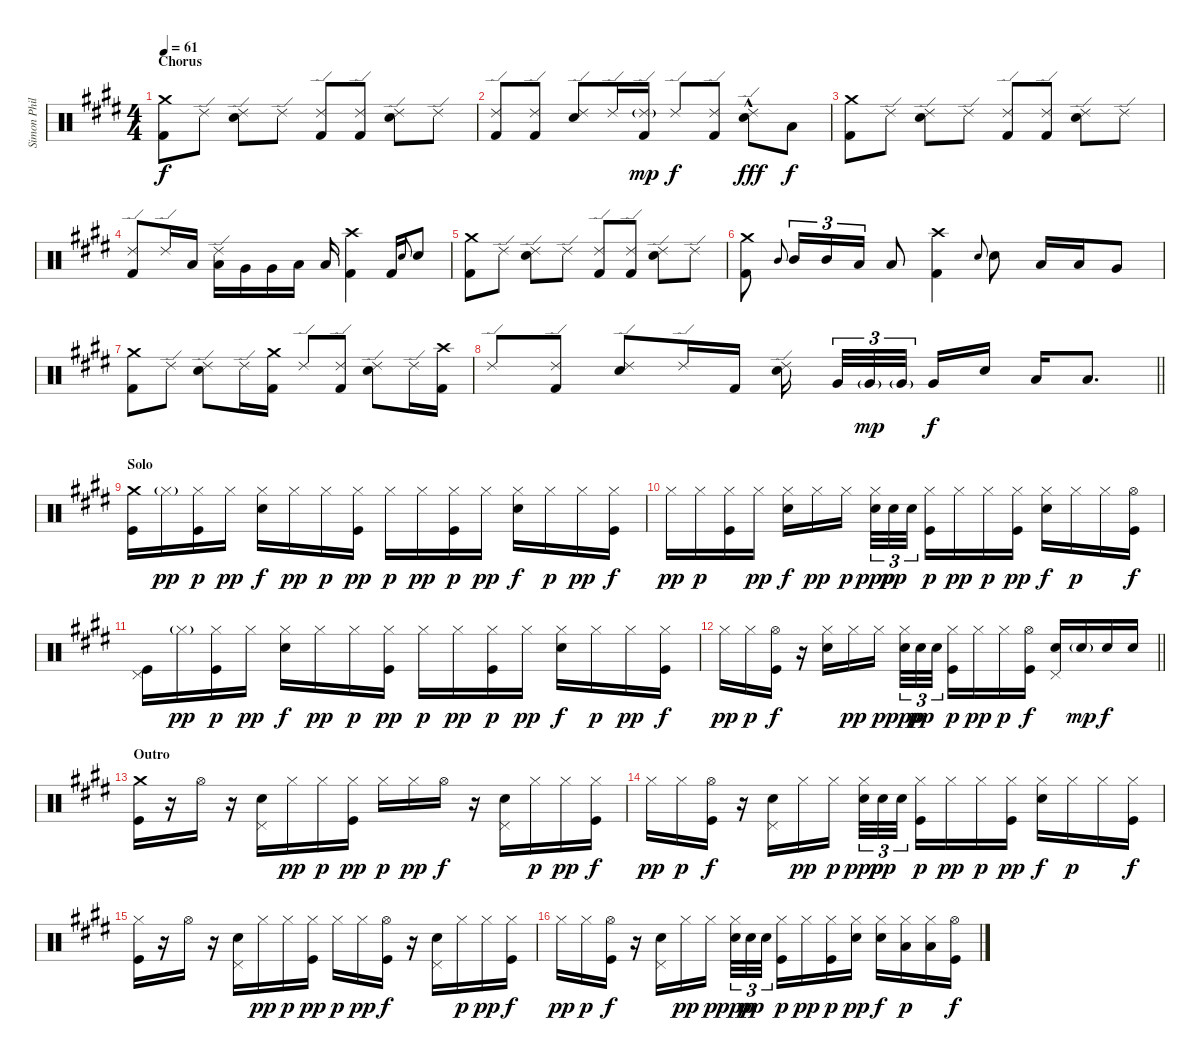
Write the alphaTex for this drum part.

\track ("Simon Phillips" "Simon Phil") {instrument percussion}
\staff {score}
\articulation defaults
\ts (4 4)
\section ("" "Chorus")
\tempo 61
\clef neutral
\ks e
("Crash medium (hit)" "Kick (hit) 2").8{dy f} "Ride (edge) 2".8 ("Ride (edge) 2" "Electric Snare (hit)").8 "Ride (edge) 2".8 ("Ride (edge) 2" "Kick (hit) 2").8 ("Ride (edge) 2" "Kick (hit) 2").8 ("Ride (edge) 2" "Electric Snare (hit)").8 "Ride (edge) 2".8 |
("Ride (edge) 2" "Kick (hit) 2").8 ("Ride (edge) 2" "Kick (hit) 2").8 ("Ride (edge) 2" "Electric Snare (hit)").8 "Ride (edge) 2".16 ("Ride (edge) 2"{g} "Kick (hit) 2").16{dy mp} "Ride (edge) 2".8{dy f} ("Ride (edge) 2" "Kick (hit) 2").8 ("Ride (edge) 2"{hac} "Electric Snare (hit)").8{dy fff} "Low Floor Tom (hit)".8{dy f} |
("Crash medium (hit)" "Kick (hit) 2").8 "Ride (edge) 2".8 ("Ride (edge) 2" "Electric Snare (hit)").8 "Ride (edge) 2".8 ("Ride (edge) 2" "Kick (hit) 2").8 ("Ride (edge) 2" "Kick (hit) 2").8 ("Ride (edge) 2" "Electric Snare (hit)").8 "Ride (edge) 2".8 |
("Ride (edge) 2" "Kick (hit) 2").8 "Ride (edge) 2".16 "Low Tom (hit)".16 ("Ride (edge) 2" "Low Tom (hit)").16 "Very Low Tom (hit)".16 "Very Low Tom (hit)".16 "Low Floor Tom (hit)".16 "Low Floor Tom (hit)".16 ("Crash high (hit)" "Kick (hit) 2").4 "Kick (hit) 2".16 "Electric Snare (hit)".8{gr onbeat} "Electric Snare (hit)".8 |
("Crash medium (hit)" "Kick (hit) 2").8 "Ride (edge) 2".8 ("Ride (edge) 2" "Electric Snare (hit)").8 "Ride (edge) 2".8 ("Ride (edge) 2" "Kick (hit) 2").8 ("Ride (edge) 2" "Kick (hit) 2").8 ("Ride (edge) 2" "Electric Snare (hit)").8 "Ride (edge) 2".8 |
("Crash medium (hit)" "Kick (hit) 2").8 "Mid Tom (hit)".8{gr onbeat} "Mid Tom (hit)".16{tu (3 2)} "Mid Tom (hit)".16{tu (3 2)} "Low Tom (hit)".16{tu (3 2)} "Low Tom (hit)".8 ("Crash high (hit)" "Kick (hit) 2").4 "Electric Snare (hit)".8{gr onbeat} "Electric Snare (hit)".8 "Low Tom (hit)".16 "Low Tom (hit)".16 "Very Low Tom (hit)".8 |
("Crash medium (hit)" "Kick (hit) 2").8 "Ride (edge) 2".8 ("Ride (edge) 2" "Electric Snare (hit)").8 "Ride (edge) 2".16 ("Crash medium (hit)" "Kick (hit) 2").16 "Ride (edge) 2".8 ("Ride (edge) 2" "Kick (hit) 2").8 ("Ride (edge) 2" "Electric Snare (hit)").8 "Ride (edge) 2".16 ("Crash high (hit)" "Kick (hit) 2").16 |
\barLineRight lightlight "Ride (edge) 2".8
("Ride (edge) 2" "Kick (hit) 2").8 ("Ride (edge) 2" "Electric Snare (hit)").8 "Ride (edge) 2".16 "Kick (hit) 2".16 ("Ride (edge) 2" "Electric Snare (hit)").16{beam splitsecondary} "Very Low Tom (hit)".32{tu (3 2)} "Very Low Tom (hit)"{g}.32{tu (3 2) dy mp} "Very Low Tom (hit)"{g}.32{tu (3 2) beam splitsecondary} "Very Low Tom (hit)".16{dy f} "Electric Snare (hit)".16 "Low Tom (hit)".16 "Low Tom (hit)".8{d} |
\section ("" "Solo")
("Crash medium (hit)" "Kick (hit)").16 "Hi-Hat (closed)"{g}.16{dy pp} ("Hi-Hat (closed)" "Kick (hit)").16{dy p} "Hi-Hat (closed)".16{dy pp} ("Hi-Hat (closed)" "Electric Snare (hit)").16{dy f} "Hi-Hat (closed)".16{dy pp} "Hi-Hat (closed)".16{dy p} ("Hi-Hat (closed)" "Kick (hit)").16{dy pp} "Hi-Hat (closed)".16{dy p} "Hi-Hat (closed)".16{dy pp} ("Hi-Hat (closed)" "Kick (hit)").16{dy p} "Hi-Hat (closed)".16{dy pp} ("Hi-Hat (closed)" "Electric Snare (hit)").16{dy f} "Hi-Hat (closed)".16{dy p} "Hi-Hat (closed)".16{dy pp} ("Hi-Hat (closed)" "Kick (hit)").16{dy f} |
"Hi-Hat (closed)".16{dy pp} "Hi-Hat (closed)".16{dy p} ("Hi-Hat (closed)" "Kick (hit)").16 "Hi-Hat (closed)".16{dy pp} ("Hi-Hat (closed)" "Electric Snare (hit)").16{dy f} "Hi-Hat (closed)".16{dy pp} "Hi-Hat (closed)".16{dy p beam splitsecondary} ("Hi-Hat (closed)" "Electric Snare (hit)").32{tu (3 2) dy ppp} "Electric Snare (hit)".32{tu (3 2) dy pp} "Electric Snare (hit)".32{tu (3 2)} ("Hi-Hat (closed)" "Kick (hit)").16{dy p} "Hi-Hat (closed)".16{dy pp} "Hi-Hat (closed)".16{dy p} ("Hi-Hat (closed)" "Kick (hit)").16{dy pp} ("Hi-Hat (closed)" "Electric Snare (hit)").16{dy f} "Hi-Hat (closed)".16{dy p} "Hi-Hat (closed)".16 ("Hi-Hat (open)" "Kick (hit)").16{dy f} |
("Pedal Hi-Hat (hit)" "Kick (hit)").16 "Hi-Hat (closed)"{g}.16{dy pp} ("Hi-Hat (closed)" "Kick (hit)").16{dy p} "Hi-Hat (closed)".16{dy pp} ("Hi-Hat (closed)" "Electric Snare (hit)").16{dy f} "Hi-Hat (closed)".16{dy pp} "Hi-Hat (closed)".16{dy p} ("Hi-Hat (closed)" "Kick (hit)").16{dy pp} "Hi-Hat (closed)".16{dy p} "Hi-Hat (closed)".16{dy pp} ("Hi-Hat (closed)" "Kick (hit)").16{dy p} "Hi-Hat (closed)".16{dy pp} ("Hi-Hat (closed)" "Electric Snare (hit)").16{dy f} "Hi-Hat (closed)".16{dy p} "Hi-Hat (closed)".16{dy pp} ("Hi-Hat (closed)" "Kick (hit)").16{dy f} |
\barLineRight lightlight "Hi-Hat (closed)".16{dy pp} "Hi-Hat (closed)".16{dy p}
("Hi-Hat (open)" "Kick (hit)").16{dy f} r.16 ("Hi-Hat (closed)" "Electric Snare (hit)").16 "Hi-Hat (closed)".16{dy pp} "Hi-Hat (closed)".16{dy p beam splitsecondary} ("Hi-Hat (closed)" "Electric Snare (hit)").32{tu (3 2) dy ppp} "Electric Snare (hit)".32{tu (3 2) dy pp} "Electric Snare (hit)".32{tu (3 2)} ("Hi-Hat (closed)" "Kick (hit)").16{dy p} "Hi-Hat (closed)".16{dy pp} "Hi-Hat (closed)".16{dy p} ("Hi-Hat (open)" "Kick (hit)").16{dy f} ("Pedal Hi-Hat (hit)" "Electric Snare (hit)").16 "Electric Snare (hit)"{g}.16{dy mp} "Electric Snare (hit)".16{dy f} "Electric Snare (hit)".16 |
\section ("" "Outro")
("Crash medium (hit)" "Kick (hit)").16 r.16 "Hi-Hat (open)".16 r.16 ("Pedal Hi-Hat (hit)" "Electric Snare (hit)").16 "Hi-Hat (closed)".16{dy pp} "Hi-Hat (closed)".16{dy p} ("Hi-Hat (closed)" "Kick (hit)").16{dy pp} "Hi-Hat (closed)".16{dy p} "Hi-Hat (closed)".16{dy pp} "Hi-Hat (open)".16{dy f} r.16 ("Pedal Hi-Hat (hit)" "Electric Snare (hit)").16 "Hi-Hat (closed)".16{dy p} "Hi-Hat (closed)".16{dy pp} ("Hi-Hat (closed)" "Kick (hit)").16{dy f} |
"Hi-Hat (closed)".16{dy pp} "Hi-Hat (closed)".16{dy p} ("Hi-Hat (open)" "Kick (hit)").16{dy f} r.16 ("Pedal Hi-Hat (hit)" "Electric Snare (hit)").16 "Hi-Hat (closed)".16{dy pp} "Hi-Hat (closed)".16{dy p beam splitsecondary} ("Hi-Hat (closed)" "Electric Snare (hit)").32{tu (3 2) dy ppp} "Electric Snare (hit)".32{tu (3 2) dy pp} "Electric Snare (hit)".32{tu (3 2)} ("Hi-Hat (closed)" "Kick (hit)").16{dy p} "Hi-Hat (closed)".16{dy pp} "Hi-Hat (closed)".16{dy p} ("Hi-Hat (closed)" "Kick (hit)").16{dy pp} ("Hi-Hat (closed)" "Electric Snare (hit)").16{dy f} "Hi-Hat (closed)".16{dy p} "Hi-Hat (closed)".16 ("Hi-Hat (closed)" "Kick (hit)").16{dy f} |
("Hi-Hat (closed)" "Kick (hit)").16 r.16 "Hi-Hat (open)".16 r.16 ("Pedal Hi-Hat (hit)" "Electric Snare (hit)").16 "Hi-Hat (closed)".16{dy pp} "Hi-Hat (closed)".16{dy p} ("Hi-Hat (closed)" "Kick (hit)").16{dy pp} "Hi-Hat (closed)".16{dy p} "Hi-Hat (closed)".16{dy pp} ("Hi-Hat (open)" "Kick (hit)").16{dy f} r.16 ("Pedal Hi-Hat (hit)" "Electric Snare (hit)").16 "Hi-Hat (closed)".16{dy p} "Hi-Hat (closed)".16{dy pp} ("Hi-Hat (closed)" "Kick (hit)").16{dy f} |
"Hi-Hat (closed)".16{dy pp} "Hi-Hat (closed)".16{dy p} ("Hi-Hat (open)" "Kick (hit)").16{dy f} r.16 ("Pedal Hi-Hat (hit)" "Electric Snare (hit)").16 "Hi-Hat (closed)".16{dy pp} "Hi-Hat (closed)".16{dy p beam splitsecondary} ("Hi-Hat (closed)" "Electric Snare (hit)").32{tu (3 2) dy ppp} "Electric Snare (hit)".32{tu (3 2) dy pp} "Electric Snare (hit)".32{tu (3 2)} ("Hi-Hat (closed)" "Kick (hit)").16{dy p} "Hi-Hat (closed)".16{dy pp} ("Hi-Hat (closed)" "Kick (hit)").16{dy p} ("Hi-Hat (closed)" "Electric Snare (hit)").16{dy pp} ("Hi-Hat (closed)" "Electric Snare (hit)").16{dy f} ("Hi-Hat (closed)" "Low Tom (hit)").16{dy p} ("Hi-Hat (closed)" "Low Tom (hit)").16 ("Hi-Hat (open)" "Kick (hit)").16{dy f}
